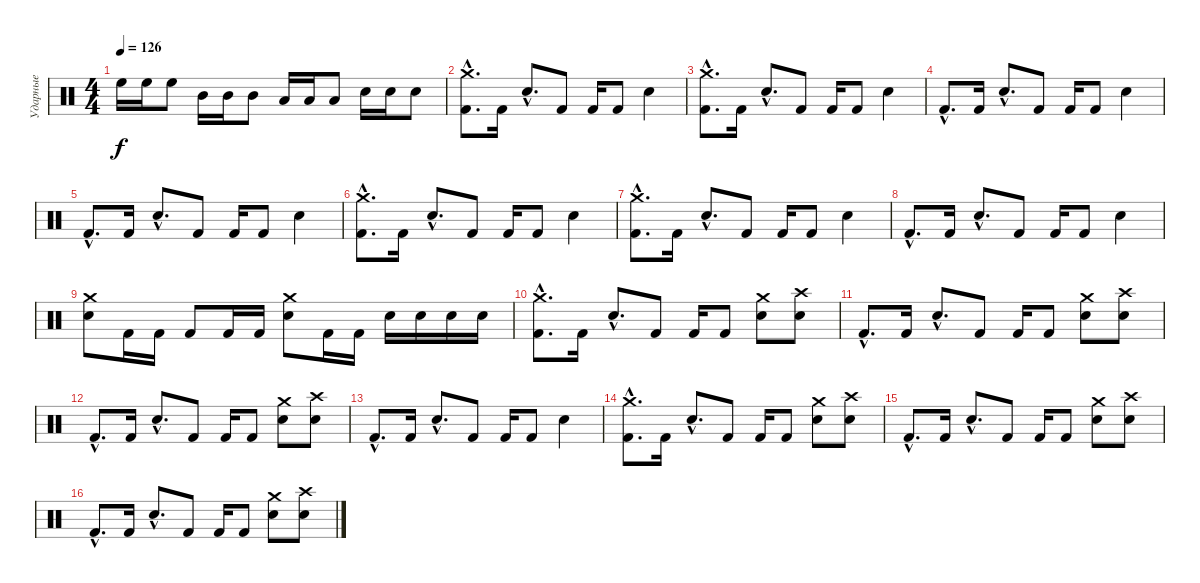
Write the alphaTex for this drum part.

\track ("Ударные" "Ударные") {instrument percussion}
\staff {score}
\articulation defaults
\ts (4 4)
\tempo 126
\clef neutral
\ks c "High Floor Tom (hit)".16{dy f} "High Floor Tom (hit)".16 "High Floor Tom (hit)".8 "Mid Tom (hit)".16 "Mid Tom (hit)".16 "Mid Tom (hit)".8 "Low Tom (hit)".16 "Low Tom (hit)".16 "Low Tom (hit)".8 "Snare (hit) 2".16 "Snare (hit) 2".16 "Snare (hit) 2".8
|
("Kick (hit) 2"{hac} "Crash medium (hit)"{hac}).8{d} "Kick (hit) 2".16 "Snare (hit) 2"{hac}.8{d} "Kick (hit) 2".8 "Kick (hit) 2".16 "Kick (hit) 2".8 "Snare (hit) 2".4 |
("Kick (hit) 2"{hac} "Crash medium (hit)"{hac}).8{d} "Kick (hit) 2".16 "Snare (hit) 2"{hac}.8{d} "Kick (hit) 2".8 "Kick (hit) 2".16 "Kick (hit) 2".8 "Snare (hit) 2".4 |
"Kick (hit) 2"{hac}.8{d} "Kick (hit) 2".16 "Snare (hit) 2"{hac}.8{d} "Kick (hit) 2".8 "Kick (hit) 2".16 "Kick (hit) 2".8 "Snare (hit) 2".4 |
"Kick (hit) 2"{hac}.8{d} "Kick (hit) 2".16 "Snare (hit) 2"{hac}.8{d} "Kick (hit) 2".8 "Kick (hit) 2".16 "Kick (hit) 2".8 "Snare (hit) 2".4 |
("Kick (hit) 2"{hac} "Crash medium (hit)"{hac}).8{d} "Kick (hit) 2".16 "Snare (hit) 2"{hac}.8{d} "Kick (hit) 2".8 "Kick (hit) 2".16 "Kick (hit) 2".8 "Snare (hit) 2".4 |
("Kick (hit) 2"{hac} "Crash medium (hit)"{hac}).8{d} "Kick (hit) 2".16 "Snare (hit) 2"{hac}.8{d} "Kick (hit) 2".8 "Kick (hit) 2".16 "Kick (hit) 2".8 "Snare (hit) 2".4 |
"Kick (hit) 2"{hac}.8{d} "Kick (hit) 2".16 "Snare (hit) 2"{hac}.8{d} "Kick (hit) 2".8 "Kick (hit) 2".16 "Kick (hit) 2".8 "Snare (hit) 2".4 |
("Crash medium (hit)" "Snare (hit) 2").8 "Kick (hit) 2".16 "Kick (hit) 2".16 "Kick (hit) 2".8 "Kick (hit) 2".16 "Kick (hit) 2".16 ("Crash medium (hit)" "Snare (hit) 2").8 "Kick (hit) 2".16 "Kick (hit) 2".16 "Snare (hit) 2".16 "Snare (hit) 2".16 "Snare (hit) 2".16 "Snare (hit) 2".16 |
("Kick (hit) 2"{hac} "Crash medium (hit)"{hac}).8{d} "Kick (hit) 2".16 "Snare (hit) 2"{hac}.8{d} "Kick (hit) 2".8 "Kick (hit) 2".16 "Kick (hit) 2".8 ("Snare (hit) 2" "Crash medium (hit)").8 ("Snare (hit) 2" "Crash high (hit)").8 |
"Kick (hit) 2"{hac}.8{d} "Kick (hit) 2".16 "Snare (hit) 2"{hac}.8{d} "Kick (hit) 2".8 "Kick (hit) 2".16 "Kick (hit) 2".8 ("Snare (hit) 2" "Crash medium (hit)").8 ("Snare (hit) 2" "Crash high (hit)").8 |
"Kick (hit) 2"{hac}.8{d} "Kick (hit) 2".16 "Snare (hit) 2"{hac}.8{d} "Kick (hit) 2".8 "Kick (hit) 2".16 "Kick (hit) 2".8 ("Snare (hit) 2" "Crash medium (hit)").8 ("Snare (hit) 2" "Crash high (hit)").8 |
"Kick (hit) 2"{hac}.8{d} "Kick (hit) 2".16 "Snare (hit) 2"{hac}.8{d} "Kick (hit) 2".8 "Kick (hit) 2".16 "Kick (hit) 2".8 "Snare (hit) 2".4 |
("Kick (hit) 2"{hac} "Crash medium (hit)"{hac}).8{d} "Kick (hit) 2".16 "Snare (hit) 2"{hac}.8{d} "Kick (hit) 2".8 "Kick (hit) 2".16 "Kick (hit) 2".8 ("Snare (hit) 2" "Crash medium (hit)").8 ("Snare (hit) 2" "Crash high (hit)").8 |
"Kick (hit) 2"{hac}.8{d} "Kick (hit) 2".16 "Snare (hit) 2"{hac}.8{d} "Kick (hit) 2".8 "Kick (hit) 2".16 "Kick (hit) 2".8 ("Snare (hit) 2" "Crash medium (hit)").8 ("Snare (hit) 2" "Crash high (hit)").8 |
"Kick (hit) 2"{hac}.8{d} "Kick (hit) 2".16 "Snare (hit) 2"{hac}.8{d} "Kick (hit) 2".8 "Kick (hit) 2".16 "Kick (hit) 2".8 ("Snare (hit) 2" "Crash medium (hit)").8 ("Snare (hit) 2" "Crash high (hit)").8
